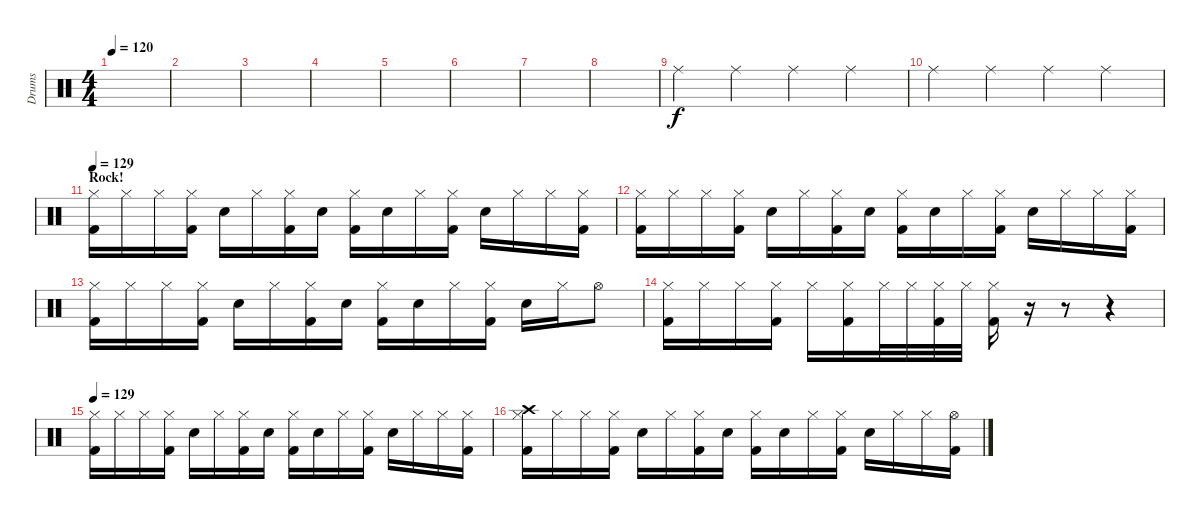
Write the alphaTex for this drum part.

\track ("Drums" "Drums") {instrument percussion}
\staff {score}
\articulation defaults
\ts (4 4)
\tempo 120
\tempo 165
\tempo 120
\clef neutral
\ks c
|
|
|
|
|
|
|
|
"Ride (middle)".4 "Ride (middle)".4 "Ride (middle)".4 "Ride (middle)".4 |
"Ride (middle)".4 "Ride (middle)".4 "Ride (middle)".4 "Ride (middle)".4 |
\section ("" "Rock!")
\tempo 129
("Hi-Hat (closed)" "Kick (hit) 2").16 "Hi-Hat (closed)".16 "Hi-Hat (closed)".16 ("Hi-Hat (closed)" "Kick (hit) 2").16 "Electric Snare (hit)".16 "Hi-Hat (closed)".16 ("Hi-Hat (closed)" "Kick (hit) 2").16 "Electric Snare (hit)".16 ("Hi-Hat (closed)" "Kick (hit) 2").16 "Electric Snare (hit)".16 "Hi-Hat (closed)".16 ("Hi-Hat (closed)" "Kick (hit) 2").16 "Electric Snare (hit)".16 "Hi-Hat (closed)".16 "Hi-Hat (closed)".16 ("Hi-Hat (closed)" "Kick (hit) 2").16 |
("Hi-Hat (closed)" "Kick (hit) 2").16 "Hi-Hat (closed)".16 "Hi-Hat (closed)".16 ("Hi-Hat (closed)" "Kick (hit) 2").16 "Electric Snare (hit)".16 "Hi-Hat (closed)".16 ("Hi-Hat (closed)" "Kick (hit) 2").16 "Electric Snare (hit)".16 ("Hi-Hat (closed)" "Kick (hit) 2").16 "Electric Snare (hit)".16 "Hi-Hat (closed)".16 ("Hi-Hat (closed)" "Kick (hit) 2").16 "Electric Snare (hit)".16 "Hi-Hat (closed)".16 "Hi-Hat (closed)".16 ("Hi-Hat (closed)" "Kick (hit) 2").16 |
("Hi-Hat (closed)" "Kick (hit) 2").16 "Hi-Hat (closed)".16 "Hi-Hat (closed)".16 ("Hi-Hat (closed)" "Kick (hit) 2").16 "Electric Snare (hit)".16 "Hi-Hat (closed)".16 ("Hi-Hat (closed)" "Kick (hit) 2").16 "Electric Snare (hit)".16 ("Hi-Hat (closed)" "Kick (hit) 2").16 "Electric Snare (hit)".16 "Hi-Hat (closed)".16 ("Hi-Hat (closed)" "Kick (hit) 2").16 "Electric Snare (hit)".16 "Hi-Hat (closed)".16 "Hi-Hat (open)".8 |
("Hi-Hat (closed)" "Kick (hit) 2").16 "Hi-Hat (closed)".16 "Hi-Hat (closed)".16 ("Hi-Hat (closed)" "Kick (hit) 2").16 "Hi-Hat (closed)".16 ("Hi-Hat (closed)" "Kick (hit) 2").16 "Hi-Hat (closed)".32 "Hi-Hat (closed)".32 ("Hi-Hat (closed)" "Kick (hit) 2").32 "Hi-Hat (closed)".32 ("Hi-Hat (closed)" "Kick (hit) 2").16 r.16 r.8 r.4 |
\tempo 129
("Hi-Hat (closed)" "Kick (hit) 2").16 "Hi-Hat (closed)".16 "Hi-Hat (closed)".16 ("Hi-Hat (closed)" "Kick (hit) 2").16 "Electric Snare (hit)".16 "Hi-Hat (closed)".16 ("Hi-Hat (closed)" "Kick (hit) 2").16 "Electric Snare (hit)".16 ("Hi-Hat (closed)" "Kick (hit) 2").16 "Electric Snare (hit)".16 "Hi-Hat (closed)".16 ("Hi-Hat (closed)" "Kick (hit) 2").16 "Electric Snare (hit)".16 "Hi-Hat (closed)".16 "Hi-Hat (closed)".16 ("Hi-Hat (closed)" "Kick (hit) 2").16 |
("Crash high (hit)" "Hi-Hat (closed)" "Kick (hit) 2").16 "Hi-Hat (closed)".16 "Hi-Hat (closed)".16 ("Hi-Hat (closed)" "Kick (hit) 2").16 "Electric Snare (hit)".16 "Hi-Hat (closed)".16 ("Hi-Hat (closed)" "Kick (hit) 2").16 "Electric Snare (hit)".16 ("Hi-Hat (closed)" "Kick (hit) 2").16 "Electric Snare (hit)".16 "Hi-Hat (closed)".16 ("Hi-Hat (closed)" "Kick (hit) 2").16 "Electric Snare (hit)".16 "Hi-Hat (closed)".16 "Hi-Hat (closed)".16 ("Hi-Hat (open)" "Kick (hit) 2").16
